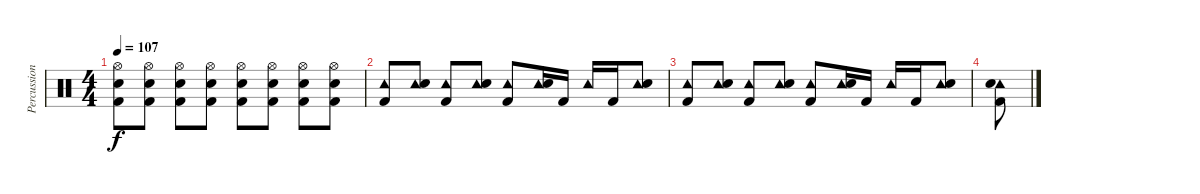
\track ("Percussion" "Percussion") {instrument percussion}
\staff {score}
\articulation defaults
\ts (4 4)
\tempo 107
\clef neutral
\ks c
("Hi-Hat (open)" "Electric Snare (hit)" "Kick (hit) 2").8{dy f} ("Hi-Hat (open)" "Electric Snare (hit)" "Kick (hit) 2").8 ("Hi-Hat (open)" "Electric Snare (hit)" "Kick (hit) 2").8 ("Hi-Hat (open)" "Electric Snare (hit)" "Kick (hit) 2").8 ("Hi-Hat (open)" "Electric Snare (hit)" "Kick (hit) 2").8 ("Hi-Hat (open)" "Electric Snare (hit)" "Kick (hit) 2").8 ("Hi-Hat (open)" "Electric Snare (hit)" "Kick (hit) 2").8 ("Hi-Hat (open)" "Electric Snare (hit)" "Kick (hit) 2").8 |
("Tambourine (hit)" "Kick (hit) 2").8 ("Tambourine (hit)" "Electric Snare (hit)").8 ("Tambourine (hit)" "Kick (hit) 2").8 ("Tambourine (hit)" "Electric Snare (hit)").8 ("Tambourine (hit)" "Kick (hit) 2").8 ("Tambourine (hit)" "Electric Snare (hit)").16 "Kick (hit) 2".16 "Tambourine (hit)".16 "Kick (hit) 2".16 ("Tambourine (hit)" "Electric Snare (hit)").8 |
("Tambourine (hit)" "Kick (hit) 2").8 ("Tambourine (hit)" "Electric Snare (hit)").8 ("Tambourine (hit)" "Kick (hit) 2").8 ("Tambourine (hit)" "Electric Snare (hit)").8 ("Tambourine (hit)" "Kick (hit) 2").8 ("Tambourine (hit)" "Electric Snare (hit)").16 "Kick (hit) 2".16 "Tambourine (hit)".16 "Kick (hit) 2".16 ("Tambourine (hit)" "Electric Snare (hit)").8 |
("Tambourine (hit)" "Electric Snare (hit)" "Kick (hit) 2").8
